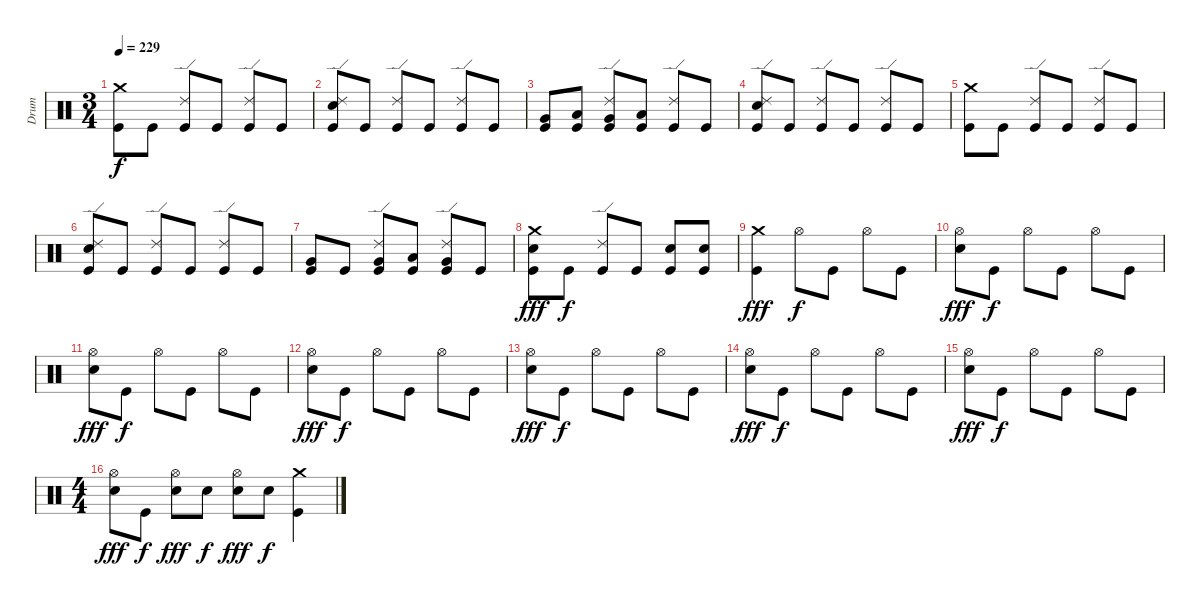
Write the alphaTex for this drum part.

\track ("Drum" "Drum") {instrument percussion}
\staff {score}
\articulation defaults
\ts (3 4)
\tempo 229
\clef neutral
\ks c
("Crash medium (hit)" "Kick (hit)").8{dy f} "Kick (hit)".8 ("Ride (edge) 2" "Kick (hit)").8 "Kick (hit)".8 ("Ride (edge) 2" "Kick (hit)").8 "Kick (hit)".8 |
("Ride (edge) 2" "Snare (hit) 2" "Kick (hit)").8 "Kick (hit)".8 ("Ride (edge) 2" "Kick (hit)").8 "Kick (hit)".8 ("Ride (edge) 2" "Kick (hit)").8 "Kick (hit)".8 |
("Very Low Tom (hit)" "Kick (hit)").8 ("Low Floor Tom (hit)" "Kick (hit)").8 ("Ride (edge) 2" "Very Low Tom (hit)" "Kick (hit)").8 ("Low Floor Tom (hit)" "Kick (hit)").8 ("Ride (edge) 2" "Kick (hit)").8 "Kick (hit)".8 |
("Ride (edge) 2" "Snare (hit) 2" "Kick (hit)").8 "Kick (hit)".8 ("Ride (edge) 2" "Kick (hit)").8 "Kick (hit)".8 ("Ride (edge) 2" "Kick (hit)").8 "Kick (hit)".8 |
("Crash medium (hit)" "Kick (hit)").8 "Kick (hit)".8 ("Ride (edge) 2" "Kick (hit)").8 "Kick (hit)".8 ("Ride (edge) 2" "Kick (hit)").8 "Kick (hit)".8 |
("Ride (edge) 2" "Snare (hit) 2" "Kick (hit)").8 "Kick (hit)".8 ("Ride (edge) 2" "Kick (hit)").8 "Kick (hit)".8 ("Ride (edge) 2" "Kick (hit)").8 "Kick (hit)".8 |
("Very Low Tom (hit)" "Kick (hit)").8 "Kick (hit)".8 ("Ride (edge) 2" "Very Low Tom (hit)" "Kick (hit)").8 ("Low Floor Tom (hit)" "Kick (hit)").8 ("Ride (edge) 2" "Very Low Tom (hit)" "Kick (hit)").8 "Kick (hit)".8 |
("Crash medium (hit)" "Snare (hit) 2" "Kick (hit)").8{dy fff} "Kick (hit)".8{dy f} ("Ride (edge) 2" "Kick (hit)").8 "Kick (hit)".8 ("Snare (hit) 2" "Kick (hit)").8 ("Snare (hit) 2" "Kick (hit)").8 |
("Crash medium (hit)" "Kick (hit)").4{dy fff} "Hi-Hat (open)".8{dy f} "Kick (hit)".8 "Hi-Hat (open)".8 "Kick (hit)".8 |
("Hi-Hat (open)" "Snare (hit) 2").8{dy fff} "Kick (hit)".8{dy f} "Hi-Hat (open)".8 "Kick (hit)".8 "Hi-Hat (open)".8 "Kick (hit)".8 |
("Hi-Hat (open)" "Snare (hit) 2").8{dy fff} "Kick (hit)".8{dy f} "Hi-Hat (open)".8 "Kick (hit)".8 "Hi-Hat (open)".8 "Kick (hit)".8 |
("Hi-Hat (open)" "Snare (hit) 2").8{dy fff} "Kick (hit)".8{dy f} "Hi-Hat (open)".8 "Kick (hit)".8 "Hi-Hat (open)".8 "Kick (hit)".8 |
("Hi-Hat (open)" "Snare (hit) 2").8{dy fff} "Kick (hit)".8{dy f} "Hi-Hat (open)".8 "Kick (hit)".8 "Hi-Hat (open)".8 "Kick (hit)".8 |
("Hi-Hat (open)" "Snare (hit) 2").8{dy fff} "Kick (hit)".8{dy f} "Hi-Hat (open)".8 "Kick (hit)".8 "Hi-Hat (open)".8 "Kick (hit)".8 |
("Hi-Hat (open)" "Snare (hit) 2").8{dy fff} "Kick (hit)".8{dy f} "Hi-Hat (open)".8 "Kick (hit)".8 "Hi-Hat (open)".8 "Kick (hit)".8 |
\ts (4 4)
("Hi-Hat (open)" "Snare (hit) 2").8{dy fff} "Kick (hit)".8{dy f} ("Hi-Hat (open)" "Snare (hit) 2").8{dy fff} "Snare (hit) 2".8{dy f} ("Hi-Hat (open)" "Snare (hit) 2").8{dy fff} "Snare (hit) 2".8{dy f} ("Crash medium (hit)" "Kick (hit)").4
